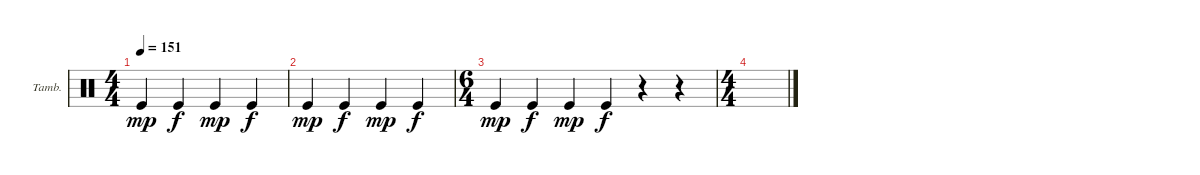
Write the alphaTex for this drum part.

\defaultSystemsLayout 4
\bracketExtendMode groupsimilarinstruments
\firstSystemTrackNameOrientation horizontal
\otherSystemsTrackNameOrientation horizontal
\track ("Helders" "Tamb.") {instrument percussion}
\staff {score}
\articulation defaults
\ts (4 4)
\tempo 151
\clef neutral
\ks c "Kick (hit)".4{dy mp} "Kick (hit)".4{dy f} "Kick (hit)".4{dy mp} "Kick (hit)".4{dy f}
|
"Kick (hit)".4{dy mp} "Kick (hit)".4{dy f} "Kick (hit)".4{dy mp} "Kick (hit)".4{dy f} |
\ts (6 4)
"Kick (hit)".4{dy mp} "Kick (hit)".4{dy f} "Kick (hit)".4{dy mp} "Kick (hit)".4{dy f} r.4 r.4 |
\ts (4 4)
